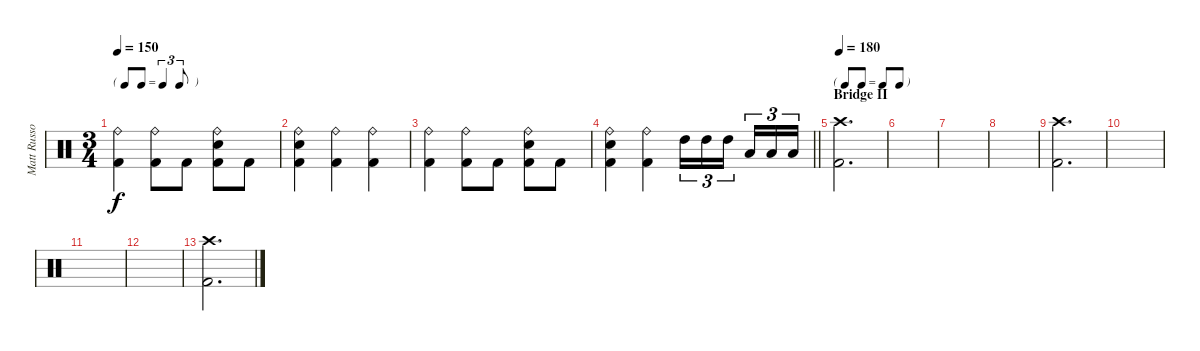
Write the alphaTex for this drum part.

\track ("Matt Russo" "Matt Russo") {instrument percussion}
\staff {score}
\articulation defaults
\ts (3 4)
\tf triplet8th
\tempo 150
\clef neutral
\ks c
("Ride (bell)" "Kick (hit) 2").4{dy f} ("Ride (bell)" "Kick (hit) 2").8 "Kick (hit) 2".8 ("Ride (bell)" "Electric Snare (hit)" "Kick (hit) 2").8 "Kick (hit) 2".8 |
("Ride (bell)" "Electric Snare (hit)" "Kick (hit) 2").4 ("Ride (bell)" "Kick (hit) 2").4 ("Ride (bell)" "Kick (hit) 2").4 |
("Ride (bell)" "Kick (hit) 2").4 ("Ride (bell)" "Kick (hit) 2").8 "Kick (hit) 2".8 ("Ride (bell)" "Electric Snare (hit)" "Kick (hit) 2").8 "Kick (hit) 2".8 |
\barLineRight lightlight
("Ride (bell)" "Electric Snare (hit)" "Kick (hit) 2").4 ("Ride (bell)" "Kick (hit) 2").4 "High Tom (hit)".16{tu (3 2)} "High Tom (hit)".16{tu (3 2)} "High Tom (hit)".16{tu (3 2) beam splitsecondary} "Low Tom (hit)".16{tu (3 2)} "Low Tom (hit)".16{tu (3 2)} "Low Tom (hit)".16{tu (3 2)} |
\tf none
\section ("" "Bridge II")
\tempo 180
("Crash high (hit)" "Kick (hit) 2").2{d} |
|
|
|
("Crash high (hit)" "Kick (hit) 2").2{d} |
|
|
|
("Crash high (hit)" "Kick (hit) 2").2{d}
